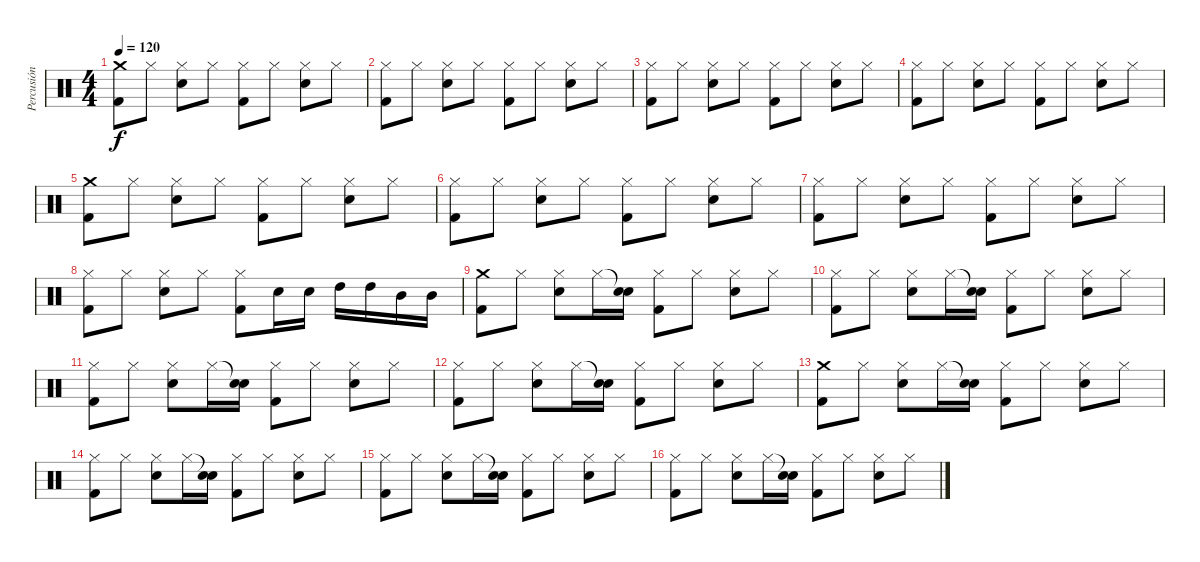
\track ("Percusión" "Percusión") {instrument percussion}
\staff {score}
\articulation defaults
\ts (4 4)
\tempo 120
\clef neutral
\ks c
("Crash medium (hit)" "Kick (hit) 2").8{dy f} "Hi-Hat (closed)".8 ("Hi-Hat (closed)" "Electric Snare (hit)").8 "Hi-Hat (closed)".8 ("Hi-Hat (closed)" "Kick (hit) 2").8 "Hi-Hat (closed)".8 ("Hi-Hat (closed)" "Electric Snare (hit)").8 "Hi-Hat (closed)".8 |
("Hi-Hat (closed)" "Kick (hit) 2").8 "Hi-Hat (closed)".8 ("Hi-Hat (closed)" "Electric Snare (hit)").8 "Hi-Hat (closed)".8 ("Hi-Hat (closed)" "Kick (hit) 2").8 "Hi-Hat (closed)".8 ("Hi-Hat (closed)" "Electric Snare (hit)").8 "Hi-Hat (closed)".8 |
("Hi-Hat (closed)" "Kick (hit) 2").8 "Hi-Hat (closed)".8 ("Hi-Hat (closed)" "Electric Snare (hit)").8 "Hi-Hat (closed)".8 ("Hi-Hat (closed)" "Kick (hit) 2").8 "Hi-Hat (closed)".8 ("Hi-Hat (closed)" "Electric Snare (hit)").8 "Hi-Hat (closed)".8 |
("Hi-Hat (closed)" "Kick (hit) 2").8 "Hi-Hat (closed)".8 ("Hi-Hat (closed)" "Electric Snare (hit)").8 "Hi-Hat (closed)".8 ("Hi-Hat (closed)" "Kick (hit) 2").8 "Hi-Hat (closed)".8 ("Hi-Hat (closed)" "Electric Snare (hit)").8 "Hi-Hat (closed)".8 |
("Crash medium (hit)" "Kick (hit) 2").8 "Hi-Hat (closed)".8 ("Hi-Hat (closed)" "Electric Snare (hit)").8 "Hi-Hat (closed)".8 ("Hi-Hat (closed)" "Kick (hit) 2").8 "Hi-Hat (closed)".8 ("Hi-Hat (closed)" "Electric Snare (hit)").8 "Hi-Hat (closed)".8 |
("Hi-Hat (closed)" "Kick (hit) 2").8 "Hi-Hat (closed)".8 ("Hi-Hat (closed)" "Electric Snare (hit)").8 "Hi-Hat (closed)".8 ("Hi-Hat (closed)" "Kick (hit) 2").8 "Hi-Hat (closed)".8 ("Hi-Hat (closed)" "Electric Snare (hit)").8 "Hi-Hat (closed)".8 |
("Hi-Hat (closed)" "Kick (hit) 2").8 "Hi-Hat (closed)".8 ("Hi-Hat (closed)" "Electric Snare (hit)").8 "Hi-Hat (closed)".8 ("Hi-Hat (closed)" "Kick (hit) 2").8 "Hi-Hat (closed)".8 ("Hi-Hat (closed)" "Electric Snare (hit)").8 "Hi-Hat (closed)".8 |
("Hi-Hat (closed)" "Kick (hit) 2").8 "Hi-Hat (closed)".8 ("Hi-Hat (closed)" "Electric Snare (hit)").8 "Hi-Hat (closed)".8 ("Hi-Hat (closed)" "Kick (hit) 2").8 "Electric Snare (hit)".16 "Electric Snare (hit)".16 "High Tom (hit)".16 "High Tom (hit)".16 "Mid Tom (hit)".16 "Mid Tom (hit)".16 |
("Crash medium (hit)" "Kick (hit) 2").8 "Hi-Hat (closed)".8 ("Hi-Hat (closed)" "Electric Snare (hit)").8 "Hi-Hat (closed)".16 ("Snare (hit)"{t} "Electric Snare (hit)").16 ("Hi-Hat (closed)" "Kick (hit) 2").8 "Hi-Hat (closed)".8 ("Hi-Hat (closed)" "Electric Snare (hit)").8 "Hi-Hat (closed)".8 |
("Hi-Hat (closed)" "Kick (hit) 2").8 "Hi-Hat (closed)".8 ("Hi-Hat (closed)" "Electric Snare (hit)").8 "Hi-Hat (closed)".16 ("Snare (hit)"{t} "Electric Snare (hit)").16 ("Hi-Hat (closed)" "Kick (hit) 2").8 "Hi-Hat (closed)".8 ("Hi-Hat (closed)" "Electric Snare (hit)").8 "Hi-Hat (closed)".8 |
("Hi-Hat (closed)" "Kick (hit) 2").8 "Hi-Hat (closed)".8 ("Hi-Hat (closed)" "Electric Snare (hit)").8 "Hi-Hat (closed)".16 ("Snare (hit)"{t} "Electric Snare (hit)").16 ("Hi-Hat (closed)" "Kick (hit) 2").8 "Hi-Hat (closed)".8 ("Hi-Hat (closed)" "Electric Snare (hit)").8 "Hi-Hat (closed)".8 |
("Hi-Hat (closed)" "Kick (hit) 2").8 "Hi-Hat (closed)".8 ("Hi-Hat (closed)" "Electric Snare (hit)").8 "Hi-Hat (closed)".16 ("Snare (hit)"{t} "Electric Snare (hit)").16 ("Hi-Hat (closed)" "Kick (hit) 2").8 "Hi-Hat (closed)".8 ("Hi-Hat (closed)" "Electric Snare (hit)").8 "Hi-Hat (closed)".8 |
("Crash medium (hit)" "Kick (hit) 2").8 "Hi-Hat (closed)".8 ("Hi-Hat (closed)" "Electric Snare (hit)").8 "Hi-Hat (closed)".16 ("Snare (hit)"{t} "Electric Snare (hit)").16 ("Hi-Hat (closed)" "Kick (hit) 2").8 "Hi-Hat (closed)".8 ("Hi-Hat (closed)" "Electric Snare (hit)").8 "Hi-Hat (closed)".8 |
("Hi-Hat (closed)" "Kick (hit) 2").8 "Hi-Hat (closed)".8 ("Hi-Hat (closed)" "Electric Snare (hit)").8 "Hi-Hat (closed)".16 ("Snare (hit)"{t} "Electric Snare (hit)").16 ("Hi-Hat (closed)" "Kick (hit) 2").8 "Hi-Hat (closed)".8 ("Hi-Hat (closed)" "Electric Snare (hit)").8 "Hi-Hat (closed)".8 |
("Hi-Hat (closed)" "Kick (hit) 2").8 "Hi-Hat (closed)".8 ("Hi-Hat (closed)" "Electric Snare (hit)").8 "Hi-Hat (closed)".16 ("Snare (hit)"{t} "Electric Snare (hit)").16 ("Hi-Hat (closed)" "Kick (hit) 2").8 "Hi-Hat (closed)".8 ("Hi-Hat (closed)" "Electric Snare (hit)").8 "Hi-Hat (closed)".8 |
("Hi-Hat (closed)" "Kick (hit) 2").8 "Hi-Hat (closed)".8 ("Hi-Hat (closed)" "Electric Snare (hit)").8 "Hi-Hat (closed)".16 ("Snare (hit)"{t} "Electric Snare (hit)").16 ("Hi-Hat (closed)" "Kick (hit) 2").8 "Hi-Hat (closed)".8 ("Hi-Hat (closed)" "Electric Snare (hit)").8 "Hi-Hat (closed)".8
